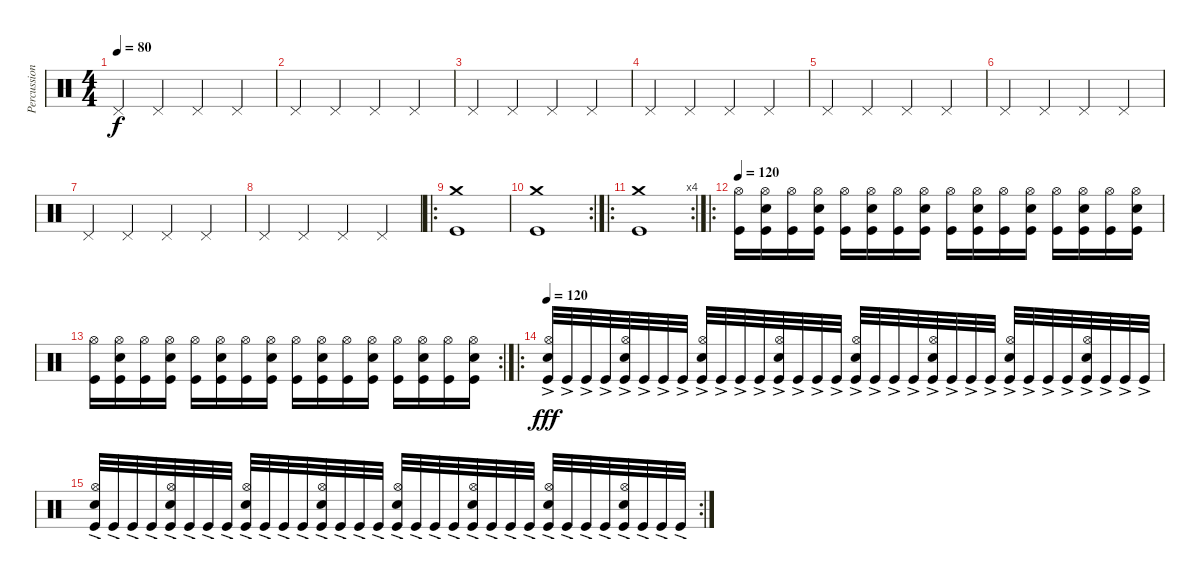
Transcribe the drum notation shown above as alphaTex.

\track ("Percussion" "Percussion") {instrument percussion}
\staff {score}
\articulation defaults
\ts (4 4)
\tempo 80
\clef neutral
\ks c "Pedal Hi-Hat (hit)".4{dy f} "Pedal Hi-Hat (hit)".4 "Pedal Hi-Hat (hit)".4 "Pedal Hi-Hat (hit)".4
|
"Pedal Hi-Hat (hit)".4 "Pedal Hi-Hat (hit)".4 "Pedal Hi-Hat (hit)".4 "Pedal Hi-Hat (hit)".4 |
"Pedal Hi-Hat (hit)".4 "Pedal Hi-Hat (hit)".4 "Pedal Hi-Hat (hit)".4 "Pedal Hi-Hat (hit)".4 |
"Pedal Hi-Hat (hit)".4 "Pedal Hi-Hat (hit)".4 "Pedal Hi-Hat (hit)".4 "Pedal Hi-Hat (hit)".4 |
"Pedal Hi-Hat (hit)".4 "Pedal Hi-Hat (hit)".4 "Pedal Hi-Hat (hit)".4 "Pedal Hi-Hat (hit)".4 |
"Pedal Hi-Hat (hit)".4 "Pedal Hi-Hat (hit)".4 "Pedal Hi-Hat (hit)".4 "Pedal Hi-Hat (hit)".4 |
"Pedal Hi-Hat (hit)".4 "Pedal Hi-Hat (hit)".4 "Pedal Hi-Hat (hit)".4 "Pedal Hi-Hat (hit)".4 |
"Pedal Hi-Hat (hit)".4 "Pedal Hi-Hat (hit)".4 "Pedal Hi-Hat (hit)".4 "Pedal Hi-Hat (hit)".4 |
\ro
("Crash medium (hit)" "Kick (hit)").1 |
\rc 2
("Crash medium (hit)" "Kick (hit)").1 |
\ro
\rc 4
("Crash medium (hit)" "Kick (hit)").1 |
\ro
\tempo 120
("Hi-Hat (open)" "Kick (hit)").16 ("Hi-Hat (open)" "Snare (hit) 2" "Kick (hit)").16 ("Hi-Hat (open)" "Kick (hit)").16 ("Hi-Hat (open)" "Snare (hit) 2" "Kick (hit)").16 ("Hi-Hat (open)" "Kick (hit)").16 ("Hi-Hat (open)" "Snare (hit) 2" "Kick (hit)").16 ("Hi-Hat (open)" "Kick (hit)").16 ("Hi-Hat (open)" "Snare (hit) 2" "Kick (hit)").16 ("Hi-Hat (open)" "Kick (hit)").16 ("Hi-Hat (open)" "Snare (hit) 2" "Kick (hit)").16 ("Hi-Hat (open)" "Kick (hit)").16 ("Hi-Hat (open)" "Snare (hit) 2" "Kick (hit)").16 ("Hi-Hat (open)" "Kick (hit)").16 ("Hi-Hat (open)" "Snare (hit) 2" "Kick (hit)").16 ("Hi-Hat (open)" "Kick (hit)").16 ("Hi-Hat (open)" "Snare (hit) 2" "Kick (hit)").16 |
\rc 2
("Hi-Hat (open)" "Kick (hit)").16 ("Hi-Hat (open)" "Snare (hit) 2" "Kick (hit)").16 ("Hi-Hat (open)" "Kick (hit)").16 ("Hi-Hat (open)" "Snare (hit) 2" "Kick (hit)").16 ("Hi-Hat (open)" "Kick (hit)").16 ("Hi-Hat (open)" "Snare (hit) 2" "Kick (hit)").16 ("Hi-Hat (open)" "Kick (hit)").16 ("Hi-Hat (open)" "Snare (hit) 2" "Kick (hit)").16 ("Hi-Hat (open)" "Kick (hit)").16 ("Hi-Hat (open)" "Snare (hit) 2" "Kick (hit)").16 ("Hi-Hat (open)" "Kick (hit)").16 ("Hi-Hat (open)" "Snare (hit) 2" "Kick (hit)").16 ("Hi-Hat (open)" "Kick (hit)").16 ("Hi-Hat (open)" "Snare (hit) 2" "Kick (hit)").16 ("Hi-Hat (open)" "Kick (hit)").16 ("Hi-Hat (open)" "Snare (hit) 2" "Kick (hit)").16 |
\ro
\tempo 120
("Hi-Hat (open)" "Snare (hit) 2" "Kick (hit)"{ac}).32{dy fff} "Kick (hit)"{ac}.32 "Kick (hit)"{ac}.32 "Kick (hit)"{ac}.32 ("Hi-Hat (open)" "Snare (hit) 2" "Kick (hit)"{ac}).32 "Kick (hit)"{ac}.32 "Kick (hit)"{ac}.32 "Kick (hit)"{ac}.32 ("Hi-Hat (open)" "Snare (hit) 2" "Kick (hit)"{ac}).32 "Kick (hit)"{ac}.32 "Kick (hit)"{ac}.32 "Kick (hit)"{ac}.32 ("Hi-Hat (open)" "Snare (hit) 2" "Kick (hit)"{ac}).32 "Kick (hit)"{ac}.32 "Kick (hit)"{ac}.32 "Kick (hit)"{ac}.32 ("Hi-Hat (open)" "Snare (hit) 2" "Kick (hit)"{ac}).32 "Kick (hit)"{ac}.32 "Kick (hit)"{ac}.32 "Kick (hit)"{ac}.32 ("Hi-Hat (open)" "Snare (hit) 2" "Kick (hit)"{ac}).32 "Kick (hit)"{ac}.32 "Kick (hit)"{ac}.32 "Kick (hit)"{ac}.32 ("Hi-Hat (open)" "Snare (hit) 2" "Kick (hit)"{ac}).32 "Kick (hit)"{ac}.32 "Kick (hit)"{ac}.32 "Kick (hit)"{ac}.32 ("Hi-Hat (open)" "Snare (hit) 2" "Kick (hit)"{ac}).32 "Kick (hit)"{ac}.32 "Kick (hit)"{ac}.32 "Kick (hit)"{ac}.32 |
\rc 2
("Hi-Hat (open)" "Snare (hit) 2" "Kick (hit)"{ac}).32 "Kick (hit)"{ac}.32 "Kick (hit)"{ac}.32 "Kick (hit)"{ac}.32 ("Hi-Hat (open)" "Snare (hit) 2" "Kick (hit)"{ac}).32 "Kick (hit)"{ac}.32 "Kick (hit)"{ac}.32 "Kick (hit)"{ac}.32 ("Hi-Hat (open)" "Snare (hit) 2" "Kick (hit)"{ac}).32 "Kick (hit)"{ac}.32 "Kick (hit)"{ac}.32 "Kick (hit)"{ac}.32 ("Hi-Hat (open)" "Snare (hit) 2" "Kick (hit)"{ac}).32 "Kick (hit)"{ac}.32 "Kick (hit)"{ac}.32 "Kick (hit)"{ac}.32 ("Hi-Hat (open)" "Snare (hit) 2" "Kick (hit)"{ac}).32 "Kick (hit)"{ac}.32 "Kick (hit)"{ac}.32 "Kick (hit)"{ac}.32 ("Hi-Hat (open)" "Snare (hit) 2" "Kick (hit)"{ac}).32 "Kick (hit)"{ac}.32 "Kick (hit)"{ac}.32 "Kick (hit)"{ac}.32 ("Hi-Hat (open)" "Snare (hit) 2" "Kick (hit)"{ac}).32 "Kick (hit)"{ac}.32 "Kick (hit)"{ac}.32 "Kick (hit)"{ac}.32 ("Hi-Hat (open)" "Snare (hit) 2" "Kick (hit)"{ac}).32 "Kick (hit)"{ac}.32 "Kick (hit)"{ac}.32 "Kick (hit)"{ac}.32
